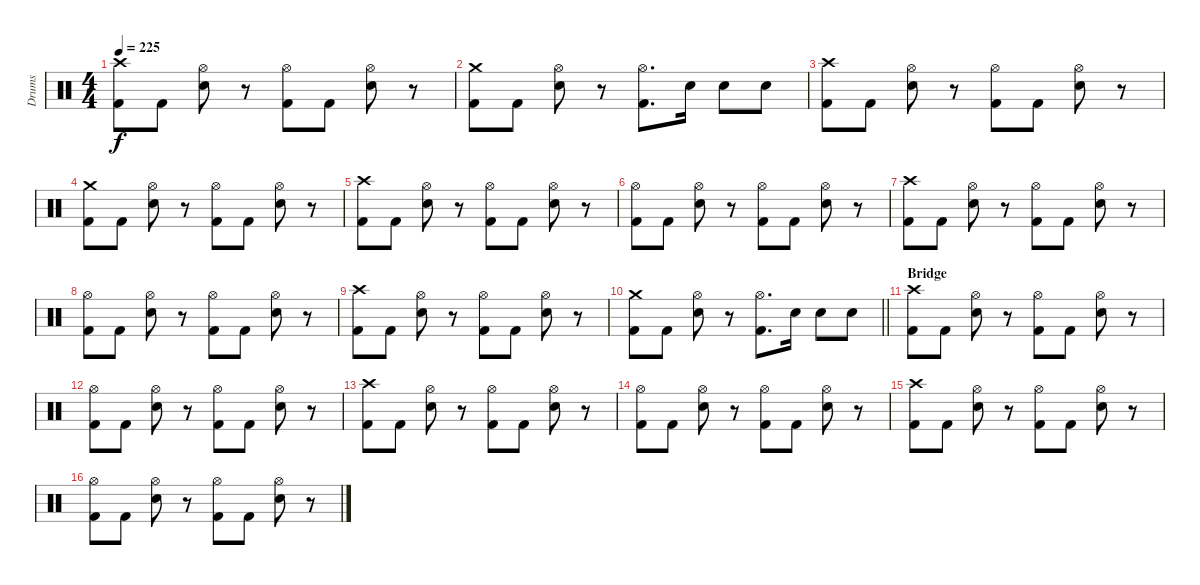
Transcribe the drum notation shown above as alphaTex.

\track ("Drums" "Drums") {instrument percussion}
\staff {score}
\articulation defaults
\ts (4 4)
\tempo 225
\clef neutral
\ks c
("Crash high (hit)" "Kick (hit) 2").8{dy f} "Kick (hit) 2".8 ("Hi-Hat (open)" "Electric Snare (hit)").8 r.8 ("Hi-Hat (open)" "Kick (hit) 2").8 "Kick (hit) 2".8 ("Hi-Hat (open)" "Electric Snare (hit)").8 r.8 |
("Crash medium (hit)" "Kick (hit) 2").8 "Kick (hit) 2".8 ("Hi-Hat (open)" "Electric Snare (hit)").8 r.8 ("Hi-Hat (open)" "Kick (hit) 2").8{d} "Electric Snare (hit)".16 "Electric Snare (hit)".8 "Electric Snare (hit)".8 |
("Crash high (hit)" "Kick (hit) 2").8 "Kick (hit) 2".8 ("Hi-Hat (open)" "Electric Snare (hit)").8 r.8 ("Hi-Hat (open)" "Kick (hit) 2").8 "Kick (hit) 2".8 ("Hi-Hat (open)" "Electric Snare (hit)").8 r.8 |
("Crash medium (hit)" "Kick (hit) 2").8 "Kick (hit) 2".8 ("Hi-Hat (open)" "Electric Snare (hit)").8 r.8 ("Hi-Hat (open)" "Kick (hit) 2").8 "Kick (hit) 2".8 ("Hi-Hat (open)" "Electric Snare (hit)").8 r.8 |
("Crash high (hit)" "Kick (hit) 2").8 "Kick (hit) 2".8 ("Hi-Hat (open)" "Electric Snare (hit)").8 r.8 ("Hi-Hat (open)" "Kick (hit) 2").8 "Kick (hit) 2".8 ("Hi-Hat (open)" "Electric Snare (hit)").8 r.8 |
("Hi-Hat (open)" "Kick (hit) 2").8 "Kick (hit) 2".8 ("Hi-Hat (open)" "Electric Snare (hit)").8 r.8 ("Hi-Hat (open)" "Kick (hit) 2").8 "Kick (hit) 2".8 ("Hi-Hat (open)" "Electric Snare (hit)").8 r.8 |
("Crash high (hit)" "Kick (hit) 2").8 "Kick (hit) 2".8 ("Hi-Hat (open)" "Electric Snare (hit)").8 r.8 ("Hi-Hat (open)" "Kick (hit) 2").8 "Kick (hit) 2".8 ("Hi-Hat (open)" "Electric Snare (hit)").8 r.8 |
("Hi-Hat (open)" "Kick (hit) 2").8 "Kick (hit) 2".8 ("Hi-Hat (open)" "Electric Snare (hit)").8 r.8 ("Hi-Hat (open)" "Kick (hit) 2").8 "Kick (hit) 2".8 ("Hi-Hat (open)" "Electric Snare (hit)").8 r.8 |
("Crash high (hit)" "Kick (hit) 2").8 "Kick (hit) 2".8 ("Hi-Hat (open)" "Electric Snare (hit)").8 r.8 ("Hi-Hat (open)" "Kick (hit) 2").8 "Kick (hit) 2".8 ("Hi-Hat (open)" "Electric Snare (hit)").8 r.8 |
\barLineRight lightlight
("Crash medium (hit)" "Kick (hit) 2").8 "Kick (hit) 2".8 ("Hi-Hat (open)" "Electric Snare (hit)").8 r.8 ("Hi-Hat (open)" "Kick (hit) 2").8{d} "Electric Snare (hit)".16 "Electric Snare (hit)".8 "Electric Snare (hit)".8 |
\section ("" "Bridge")
("Crash high (hit)" "Kick (hit) 2").8 "Kick (hit) 2".8 ("Hi-Hat (open)" "Electric Snare (hit)").8 r.8 ("Hi-Hat (open)" "Kick (hit) 2").8 "Kick (hit) 2".8 ("Hi-Hat (open)" "Electric Snare (hit)").8 r.8 |
("Hi-Hat (open)" "Kick (hit) 2").8 "Kick (hit) 2".8 ("Hi-Hat (open)" "Electric Snare (hit)").8 r.8 ("Hi-Hat (open)" "Kick (hit) 2").8 "Kick (hit) 2".8 ("Hi-Hat (open)" "Electric Snare (hit)").8 r.8 |
("Crash high (hit)" "Kick (hit) 2").8 "Kick (hit) 2".8 ("Hi-Hat (open)" "Electric Snare (hit)").8 r.8 ("Hi-Hat (open)" "Kick (hit) 2").8 "Kick (hit) 2".8 ("Hi-Hat (open)" "Electric Snare (hit)").8 r.8 |
("Hi-Hat (open)" "Kick (hit) 2").8 "Kick (hit) 2".8 ("Hi-Hat (open)" "Electric Snare (hit)").8 r.8 ("Hi-Hat (open)" "Kick (hit) 2").8 "Kick (hit) 2".8 ("Hi-Hat (open)" "Electric Snare (hit)").8 r.8 |
("Crash high (hit)" "Kick (hit) 2").8 "Kick (hit) 2".8 ("Hi-Hat (open)" "Electric Snare (hit)").8 r.8 ("Hi-Hat (open)" "Kick (hit) 2").8 "Kick (hit) 2".8 ("Hi-Hat (open)" "Electric Snare (hit)").8 r.8 |
("Hi-Hat (open)" "Kick (hit) 2").8 "Kick (hit) 2".8 ("Hi-Hat (open)" "Electric Snare (hit)").8 r.8 ("Hi-Hat (open)" "Kick (hit) 2").8 "Kick (hit) 2".8 ("Hi-Hat (open)" "Electric Snare (hit)").8 r.8
